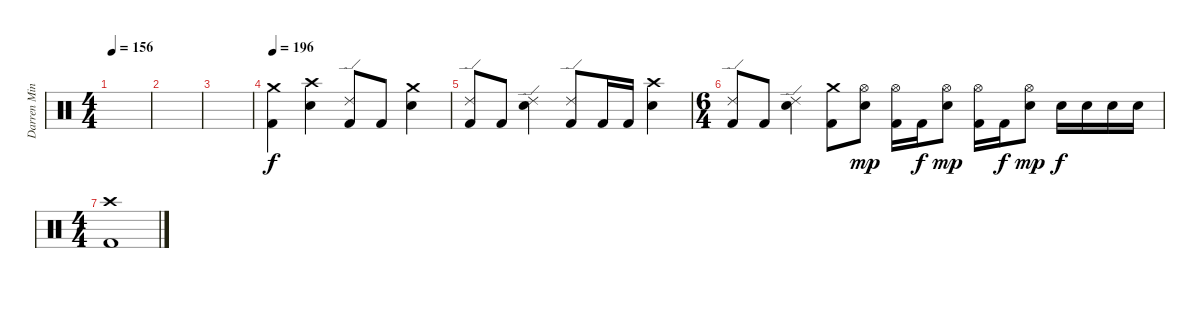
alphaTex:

\track ("Darren Minter" "Darren Min") {instrument percussion}
\staff {score}
\articulation defaults
\ts (4 4)
\tempo 156
\clef neutral
\ks c
|
|
|
\tempo 196
("Kick (hit) 2" "Crash medium (hit)").4{dy f} ("Crash high (hit)" "Snare (hit) 2").4 ("Kick (hit) 2" "Ride (edge) 2").8 "Kick (hit) 2".8 ("Crash medium (hit)" "Snare (hit) 2").4 |
("Kick (hit) 2" "Ride (edge) 2").8 "Kick (hit) 2".8 ("Ride (edge) 2" "Snare (hit) 2").4 ("Kick (hit) 2" "Ride (edge) 2").8 "Kick (hit) 2".16 "Kick (hit) 2".16 ("Crash high (hit)" "Snare (hit) 2").4 |
\ts (6 4)
("Kick (hit) 2" "Ride (edge) 2").8 "Kick (hit) 2".8 ("Ride (edge) 2" "Snare (hit) 2").4 ("Kick (hit) 2" "Crash medium (hit)").8 ("Hi-Hat (open)" "Snare (hit) 2").8{dy mp} ("Kick (hit) 2" "Hi-Hat (open)").16 "Kick (hit) 2".16{dy f} ("Hi-Hat (open)" "Snare (hit) 2").8{dy mp} ("Kick (hit) 2" "Hi-Hat (open)").16 "Kick (hit) 2".16{dy f} ("Hi-Hat (open)" "Snare (hit) 2").8{dy mp} "Snare (hit) 2".16{dy f} "Snare (hit) 2".16 "Snare (hit) 2".16 "Snare (hit) 2".16 |
\ts (4 4)
("Kick (hit) 2" "Crash high (hit)").1
